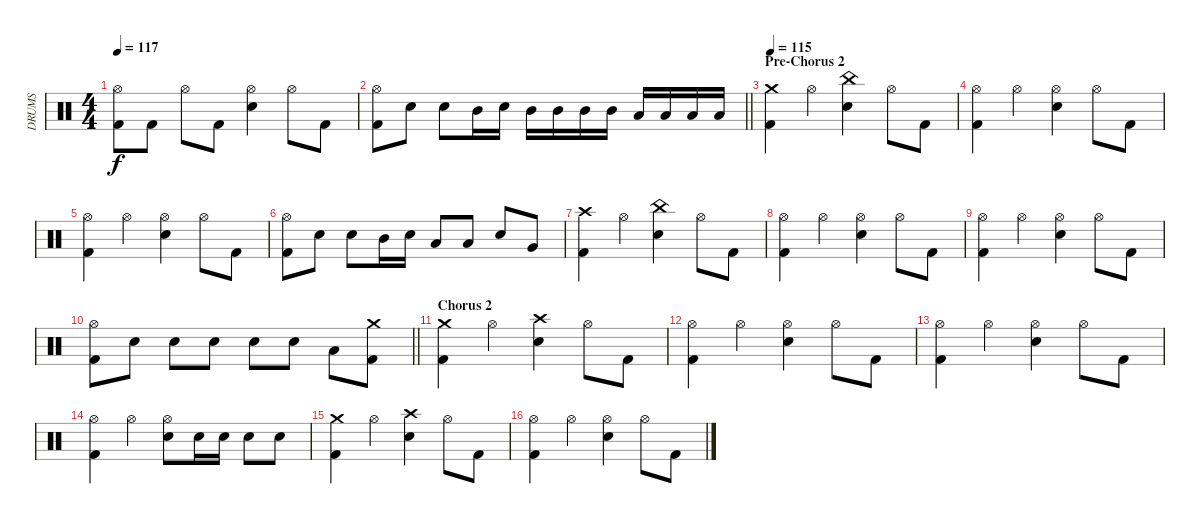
\track ("DRUMS" "DRUMS") {instrument percussion}
\staff {score}
\articulation defaults
\ts (4 4)
\tempo 117
\clef neutral
\ks c
("Hi-Hat (open)" "Kick (hit) 2").8{dy f} "Kick (hit) 2".8 "Hi-Hat (open)".8 "Kick (hit) 2".8 ("Hi-Hat (open)" "Snare (hit) 2").4 "Hi-Hat (open)".8 "Kick (hit) 2".8 |
\barLineRight lightlight
("Hi-Hat (open)" "Kick (hit) 2").8 "Snare (hit) 2".8 "Snare (hit) 2".8 "Mid Tom (hit)".16 "Snare (hit) 2".16 "Mid Tom (hit)".16 "Mid Tom (hit)".16 "Mid Tom (hit)".16 "Mid Tom (hit)".16 "Low Tom (hit)".16 "Low Tom (hit)".16 "Low Tom (hit)".16 "Low Tom (hit)".16 |
\section ("" "Pre-Chorus 2")
\tempo 115
("Crash medium (hit)" "Kick (hit) 2").4 "Hi-Hat (open)".4 ("China (hit)" "Snare (hit) 2").4 "Hi-Hat (open)".8 "Kick (hit) 2".8 |
("Hi-Hat (open)" "Kick (hit) 2").4 "Hi-Hat (open)".4 ("Hi-Hat (open)" "Snare (hit) 2").4 "Hi-Hat (open)".8 "Kick (hit) 2".8 |
("Hi-Hat (open)" "Kick (hit) 2").4 "Hi-Hat (open)".4 ("Hi-Hat (open)" "Snare (hit) 2").4 "Hi-Hat (open)".8 "Kick (hit) 2".8 |
("Hi-Hat (open)" "Kick (hit) 2").8 "Snare (hit) 2".8 "Snare (hit) 2".8 "Mid Tom (hit)".16 "Snare (hit) 2".16 "Low Tom (hit)".8 "Low Tom (hit)".8 "Snare (hit) 2".8 "Very Low Tom (hit)".8 |
("Crash high (hit)" "Kick (hit) 2").4 "Hi-Hat (open)".4 ("China (hit)" "Snare (hit) 2").4 "Hi-Hat (open)".8 "Kick (hit) 2".8 |
("Hi-Hat (open)" "Kick (hit) 2").4 "Hi-Hat (open)".4 ("Hi-Hat (open)" "Snare (hit) 2").4 "Hi-Hat (open)".8 "Kick (hit) 2".8 |
("Hi-Hat (open)" "Kick (hit) 2").4 "Hi-Hat (open)".4 ("Hi-Hat (open)" "Snare (hit) 2").4 "Hi-Hat (open)".8 "Kick (hit) 2".8 |
\barLineRight lightlight
("Hi-Hat (open)" "Kick (hit) 2").8 "Snare (hit) 2".8 "Snare (hit) 2".8 "Snare (hit) 2".8 "Snare (hit) 2".8 "Snare (hit) 2".8 "Low Floor Tom (hit)".8 ("Crash medium (hit)" "Kick (hit) 2").8 |
\section ("" "Chorus 2")
("Crash medium (hit)" "Kick (hit) 2").4 "Hi-Hat (open)".4 ("Crash high (hit)" "Snare (hit) 2").4 "Hi-Hat (open)".8 "Kick (hit) 2".8 |
("Hi-Hat (open)" "Kick (hit) 2").4 "Hi-Hat (open)".4 ("Hi-Hat (open)" "Snare (hit) 2").4 "Hi-Hat (open)".8 "Kick (hit) 2".8 |
("Hi-Hat (open)" "Kick (hit) 2").4 "Hi-Hat (open)".4 ("Hi-Hat (open)" "Snare (hit) 2").4 "Hi-Hat (open)".8 "Kick (hit) 2".8 |
("Hi-Hat (open)" "Kick (hit) 2").4 "Hi-Hat (open)".4 ("Hi-Hat (open)" "Snare (hit) 2").8 "Snare (hit) 2".16 "Snare (hit) 2".16 "Snare (hit) 2".8 "Snare (hit) 2".8 |
("Crash medium (hit)" "Kick (hit) 2").4 "Hi-Hat (open)".4 ("Crash high (hit)" "Snare (hit) 2").4 "Hi-Hat (open)".8 "Kick (hit) 2".8 |
("Hi-Hat (open)" "Kick (hit) 2").4 "Hi-Hat (open)".4 ("Hi-Hat (open)" "Snare (hit) 2").4 "Hi-Hat (open)".8 "Kick (hit) 2".8
